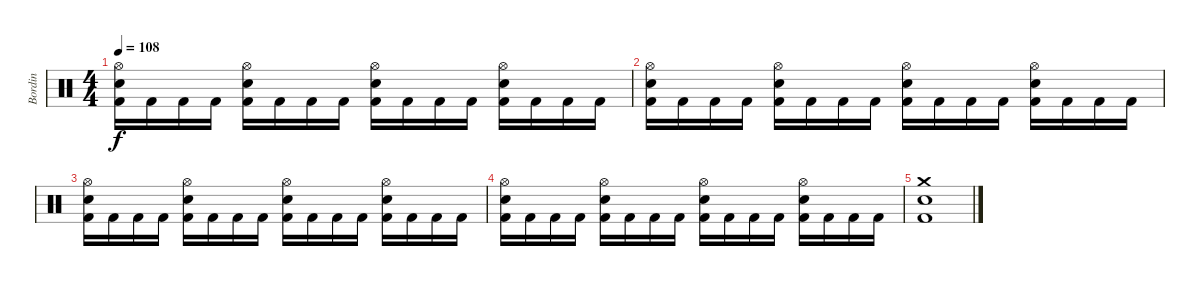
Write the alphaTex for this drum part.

\track ("Bordin" "Bordin") {instrument percussion}
\staff {score}
\articulation defaults
\ts (4 4)
\tempo 108
\clef neutral
\ks c
("Hi-Hat (open)" "Electric Snare (hit)" "Kick (hit) 2").16{dy f} "Kick (hit) 2".16 "Kick (hit) 2".16 "Kick (hit) 2".16 ("Hi-Hat (open)" "Electric Snare (hit)" "Kick (hit) 2").16 "Kick (hit) 2".16 "Kick (hit) 2".16 "Kick (hit) 2".16 ("Hi-Hat (open)" "Electric Snare (hit)" "Kick (hit) 2").16 "Kick (hit) 2".16 "Kick (hit) 2".16 "Kick (hit) 2".16 ("Hi-Hat (open)" "Electric Snare (hit)" "Kick (hit) 2").16 "Kick (hit) 2".16 "Kick (hit) 2".16 "Kick (hit) 2".16 |
("Hi-Hat (open)" "Electric Snare (hit)" "Kick (hit) 2").16 "Kick (hit) 2".16 "Kick (hit) 2".16 "Kick (hit) 2".16 ("Hi-Hat (open)" "Electric Snare (hit)" "Kick (hit) 2").16 "Kick (hit) 2".16 "Kick (hit) 2".16 "Kick (hit) 2".16 ("Hi-Hat (open)" "Electric Snare (hit)" "Kick (hit) 2").16 "Kick (hit) 2".16 "Kick (hit) 2".16 "Kick (hit) 2".16 ("Hi-Hat (open)" "Electric Snare (hit)" "Kick (hit) 2").16 "Kick (hit) 2".16 "Kick (hit) 2".16 "Kick (hit) 2".16 |
("Hi-Hat (open)" "Electric Snare (hit)" "Kick (hit) 2").16 "Kick (hit) 2".16 "Kick (hit) 2".16 "Kick (hit) 2".16 ("Hi-Hat (open)" "Electric Snare (hit)" "Kick (hit) 2").16 "Kick (hit) 2".16 "Kick (hit) 2".16 "Kick (hit) 2".16 ("Hi-Hat (open)" "Electric Snare (hit)" "Kick (hit) 2").16 "Kick (hit) 2".16 "Kick (hit) 2".16 "Kick (hit) 2".16 ("Hi-Hat (open)" "Electric Snare (hit)" "Kick (hit) 2").16 "Kick (hit) 2".16 "Kick (hit) 2".16 "Kick (hit) 2".16 |
("Hi-Hat (open)" "Electric Snare (hit)" "Kick (hit) 2").16 "Kick (hit) 2".16 "Kick (hit) 2".16 "Kick (hit) 2".16 ("Hi-Hat (open)" "Electric Snare (hit)" "Kick (hit) 2").16 "Kick (hit) 2".16 "Kick (hit) 2".16 "Kick (hit) 2".16 ("Hi-Hat (open)" "Electric Snare (hit)" "Kick (hit) 2").16 "Kick (hit) 2".16 "Kick (hit) 2".16 "Kick (hit) 2".16 ("Hi-Hat (open)" "Electric Snare (hit)" "Kick (hit) 2").16 "Kick (hit) 2".16 "Kick (hit) 2".16 "Kick (hit) 2".16 |
("Crash medium (hit)" "Electric Snare (hit)" "Kick (hit) 2").1
